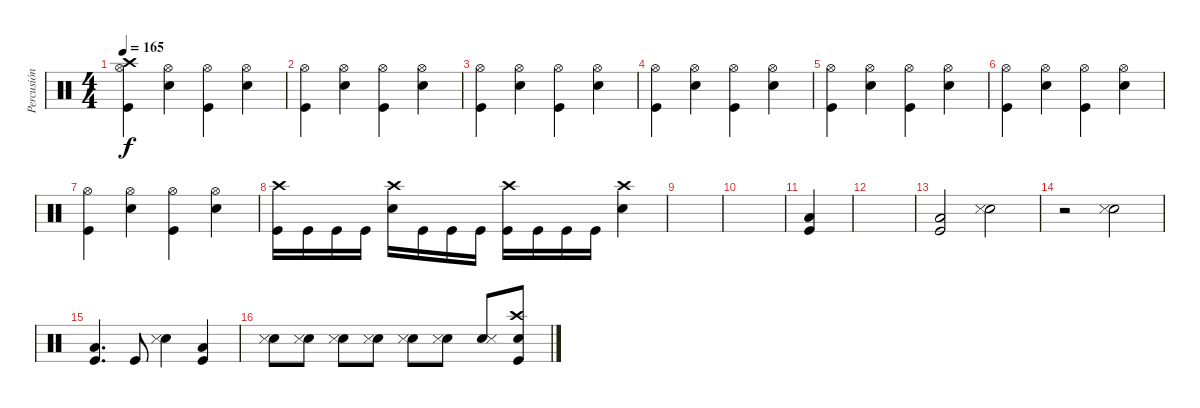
\track ("Percusión" "Percusión") {instrument percussion}
\staff {score}
\articulation defaults
\ts (4 4)
\tempo 165
\clef neutral
\ks c
("Hi-Hat (open)" "Kick (hit)" "Crash high (hit)").4{dy f} ("Hi-Hat (open)" "Snare (hit) 2").4 ("Hi-Hat (open)" "Kick (hit)").4 ("Hi-Hat (open)" "Snare (hit) 2").4 |
("Hi-Hat (open)" "Kick (hit)").4 ("Hi-Hat (open)" "Snare (hit) 2").4 ("Hi-Hat (open)" "Kick (hit)").4 ("Hi-Hat (open)" "Snare (hit) 2").4 |
("Hi-Hat (open)" "Kick (hit)").4 ("Hi-Hat (open)" "Snare (hit) 2").4 ("Hi-Hat (open)" "Kick (hit)").4 ("Hi-Hat (open)" "Snare (hit) 2").4 |
("Hi-Hat (open)" "Kick (hit)").4 ("Hi-Hat (open)" "Snare (hit) 2").4 ("Hi-Hat (open)" "Kick (hit)").4 ("Hi-Hat (open)" "Snare (hit) 2").4 |
("Hi-Hat (open)" "Kick (hit)").4 ("Hi-Hat (open)" "Snare (hit) 2").4 ("Hi-Hat (open)" "Kick (hit)").4 ("Hi-Hat (open)" "Snare (hit) 2").4 |
("Hi-Hat (open)" "Kick (hit)").4 ("Hi-Hat (open)" "Snare (hit) 2").4 ("Hi-Hat (open)" "Kick (hit)").4 ("Hi-Hat (open)" "Snare (hit) 2").4 |
("Hi-Hat (open)" "Kick (hit)").4 ("Hi-Hat (open)" "Snare (hit) 2").4 ("Hi-Hat (open)" "Kick (hit)").4 ("Hi-Hat (open)" "Snare (hit) 2").4 |
("Kick (hit)" "Crash high (hit)").16 "Kick (hit)".16 "Kick (hit)".16 "Kick (hit)".16 ("Snare (hit) 2" "Crash high (hit)").16 "Kick (hit)".16 "Kick (hit)".16 "Kick (hit)".16 ("Kick (hit)" "Crash high (hit)").16 "Kick (hit)".16 "Kick (hit)".16 "Kick (hit)".16 ("Snare (hit) 2" "Crash high (hit)").4 |
|
|
("Low Floor Tom (hit)" "Kick (hit)").4 |
|
("Low Floor Tom (hit)" "Kick (hit)").2 ("Snare (hit) 2" "Snare (side stick) 3").2 |
r.2 ("Snare (hit) 2" "Snare (side stick) 3").2 |
("Low Floor Tom (hit)" "Kick (hit)").4{d} "Kick (hit)".8 ("Snare (hit) 2" "Snare (side stick) 3").4 ("Low Floor Tom (hit)" "Kick (hit)").4 |
("Snare (hit) 2" "Snare (side stick) 3").8 ("Snare (hit) 2" "Snare (side stick) 3").8 ("Snare (hit) 2" "Snare (side stick) 3").8 ("Snare (hit) 2" "Snare (side stick) 3").8 ("Snare (hit) 2" "Snare (side stick) 3").8 ("Snare (hit) 2" "Snare (side stick) 3").8 ("Snare (hit) 2" "Snare (side stick) 3").8 ("Crash high (hit)" "Snare (hit) 2" "Kick (hit)").8
